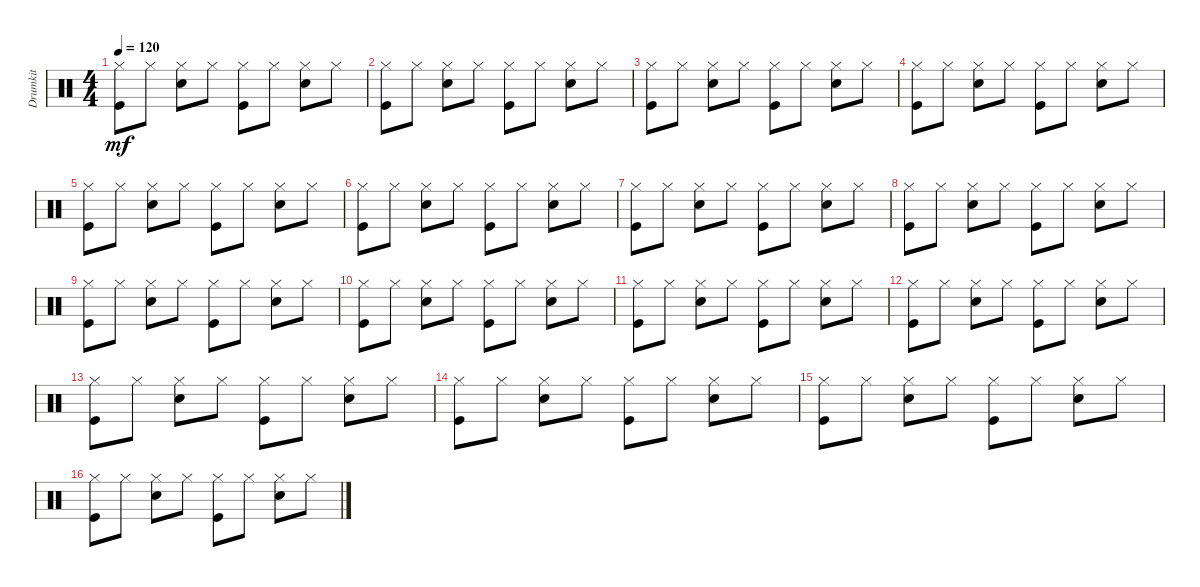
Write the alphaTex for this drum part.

\track ("Drumkit" "Drumkit") {instrument percussion}
\staff {score}
\articulation defaults
\ts (4 4)
\tempo 120
\clef neutral
\ks c
("Hi-Hat (closed)" "Kick (hit)").8{dy mf} "Hi-Hat (closed)".8 ("Hi-Hat (closed)" "Snare (hit) 2").8 "Hi-Hat (closed)".8 ("Hi-Hat (closed)" "Kick (hit)").8 "Hi-Hat (closed)".8 ("Hi-Hat (closed)" "Snare (hit) 2").8 "Hi-Hat (closed)".8 |
("Hi-Hat (closed)" "Kick (hit)").8 "Hi-Hat (closed)".8 ("Hi-Hat (closed)" "Snare (hit) 2").8 "Hi-Hat (closed)".8 ("Hi-Hat (closed)" "Kick (hit)").8 "Hi-Hat (closed)".8 ("Hi-Hat (closed)" "Snare (hit) 2").8 "Hi-Hat (closed)".8 |
("Hi-Hat (closed)" "Kick (hit)").8 "Hi-Hat (closed)".8 ("Hi-Hat (closed)" "Snare (hit) 2").8 "Hi-Hat (closed)".8 ("Hi-Hat (closed)" "Kick (hit)").8 "Hi-Hat (closed)".8 ("Hi-Hat (closed)" "Snare (hit) 2").8 "Hi-Hat (closed)".8 |
("Hi-Hat (closed)" "Kick (hit)").8 "Hi-Hat (closed)".8 ("Hi-Hat (closed)" "Snare (hit) 2").8 "Hi-Hat (closed)".8 ("Hi-Hat (closed)" "Kick (hit)").8 "Hi-Hat (closed)".8 ("Hi-Hat (closed)" "Snare (hit) 2").8 "Hi-Hat (closed)".8 |
("Hi-Hat (closed)" "Kick (hit)").8 "Hi-Hat (closed)".8 ("Hi-Hat (closed)" "Snare (hit) 2").8 "Hi-Hat (closed)".8 ("Hi-Hat (closed)" "Kick (hit)").8 "Hi-Hat (closed)".8 ("Hi-Hat (closed)" "Snare (hit) 2").8 "Hi-Hat (closed)".8 |
("Hi-Hat (closed)" "Kick (hit)").8 "Hi-Hat (closed)".8 ("Hi-Hat (closed)" "Snare (hit) 2").8 "Hi-Hat (closed)".8 ("Hi-Hat (closed)" "Kick (hit)").8 "Hi-Hat (closed)".8 ("Hi-Hat (closed)" "Snare (hit) 2").8 "Hi-Hat (closed)".8 |
("Hi-Hat (closed)" "Kick (hit)").8 "Hi-Hat (closed)".8 ("Hi-Hat (closed)" "Snare (hit) 2").8 "Hi-Hat (closed)".8 ("Hi-Hat (closed)" "Kick (hit)").8 "Hi-Hat (closed)".8 ("Hi-Hat (closed)" "Snare (hit) 2").8 "Hi-Hat (closed)".8 |
("Hi-Hat (closed)" "Kick (hit)").8 "Hi-Hat (closed)".8 ("Hi-Hat (closed)" "Snare (hit) 2").8 "Hi-Hat (closed)".8 ("Hi-Hat (closed)" "Kick (hit)").8 "Hi-Hat (closed)".8 ("Hi-Hat (closed)" "Snare (hit) 2").8 "Hi-Hat (closed)".8 |
("Hi-Hat (closed)" "Kick (hit)").8 "Hi-Hat (closed)".8 ("Hi-Hat (closed)" "Snare (hit) 2").8 "Hi-Hat (closed)".8 ("Hi-Hat (closed)" "Kick (hit)").8 "Hi-Hat (closed)".8 ("Hi-Hat (closed)" "Snare (hit) 2").8 "Hi-Hat (closed)".8 |
("Hi-Hat (closed)" "Kick (hit)").8 "Hi-Hat (closed)".8 ("Hi-Hat (closed)" "Snare (hit) 2").8 "Hi-Hat (closed)".8 ("Hi-Hat (closed)" "Kick (hit)").8 "Hi-Hat (closed)".8 ("Hi-Hat (closed)" "Snare (hit) 2").8 "Hi-Hat (closed)".8 |
("Hi-Hat (closed)" "Kick (hit)").8 "Hi-Hat (closed)".8 ("Hi-Hat (closed)" "Snare (hit) 2").8 "Hi-Hat (closed)".8 ("Hi-Hat (closed)" "Kick (hit)").8 "Hi-Hat (closed)".8 ("Hi-Hat (closed)" "Snare (hit) 2").8 "Hi-Hat (closed)".8 |
("Hi-Hat (closed)" "Kick (hit)").8 "Hi-Hat (closed)".8 ("Hi-Hat (closed)" "Snare (hit) 2").8 "Hi-Hat (closed)".8 ("Hi-Hat (closed)" "Kick (hit)").8 "Hi-Hat (closed)".8 ("Hi-Hat (closed)" "Snare (hit) 2").8 "Hi-Hat (closed)".8 |
("Hi-Hat (closed)" "Kick (hit)").8 "Hi-Hat (closed)".8 ("Hi-Hat (closed)" "Snare (hit) 2").8 "Hi-Hat (closed)".8 ("Hi-Hat (closed)" "Kick (hit)").8 "Hi-Hat (closed)".8 ("Hi-Hat (closed)" "Snare (hit) 2").8 "Hi-Hat (closed)".8 |
("Hi-Hat (closed)" "Kick (hit)").8 "Hi-Hat (closed)".8 ("Hi-Hat (closed)" "Snare (hit) 2").8 "Hi-Hat (closed)".8 ("Hi-Hat (closed)" "Kick (hit)").8 "Hi-Hat (closed)".8 ("Hi-Hat (closed)" "Snare (hit) 2").8 "Hi-Hat (closed)".8 |
("Hi-Hat (closed)" "Kick (hit)").8 "Hi-Hat (closed)".8 ("Hi-Hat (closed)" "Snare (hit) 2").8 "Hi-Hat (closed)".8 ("Hi-Hat (closed)" "Kick (hit)").8 "Hi-Hat (closed)".8 ("Hi-Hat (closed)" "Snare (hit) 2").8 "Hi-Hat (closed)".8 |
("Hi-Hat (closed)" "Kick (hit)").8 "Hi-Hat (closed)".8 ("Hi-Hat (closed)" "Snare (hit) 2").8 "Hi-Hat (closed)".8 ("Hi-Hat (closed)" "Kick (hit)").8 "Hi-Hat (closed)".8 ("Hi-Hat (closed)" "Snare (hit) 2").8 "Hi-Hat (closed)".8
